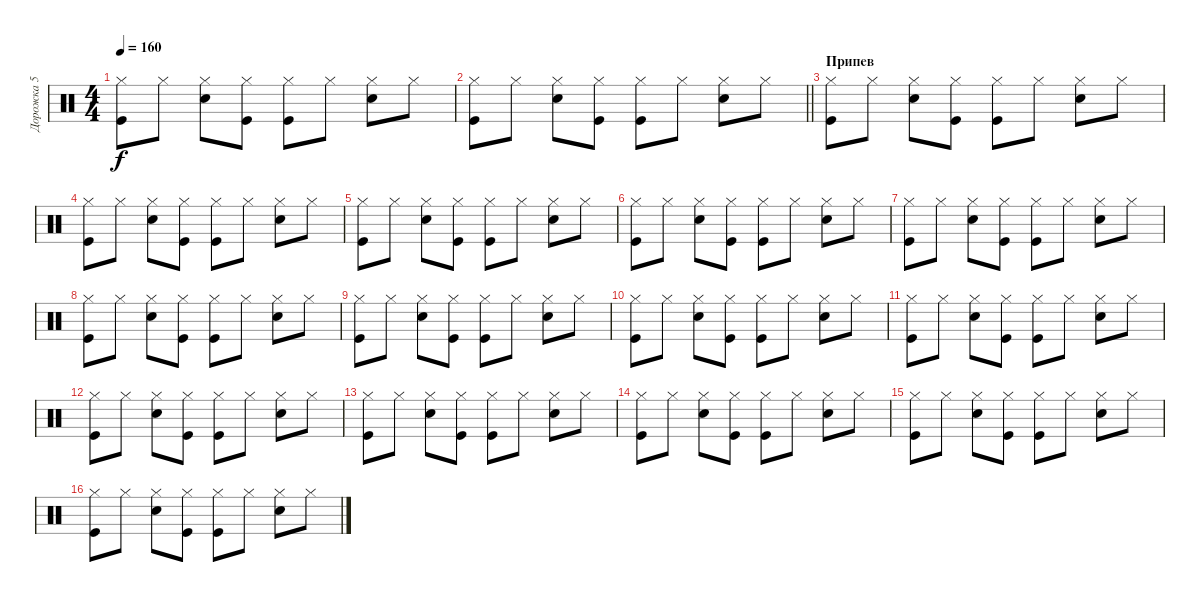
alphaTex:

\track ("Дорожка 5" "Дорожка 5") {solo instrument percussion}
\staff {score}
\articulation defaults
\ts (4 4)
\tempo 160
\clef neutral
\ks c
("Kick (hit)" "Hi-Hat (closed)").8{dy f} "Hi-Hat (closed)".8 ("Hi-Hat (closed)" "Snare (hit) 2").8 ("Kick (hit)" "Hi-Hat (closed)").8 ("Kick (hit)" "Hi-Hat (closed)").8 "Hi-Hat (closed)".8 ("Hi-Hat (closed)" "Snare (hit) 2").8 "Hi-Hat (closed)".8 |
\barLineRight lightlight
("Kick (hit)" "Hi-Hat (closed)").8 "Hi-Hat (closed)".8 ("Hi-Hat (closed)" "Snare (hit) 2").8 ("Kick (hit)" "Hi-Hat (closed)").8 ("Kick (hit)" "Hi-Hat (closed)").8 "Hi-Hat (closed)".8 ("Hi-Hat (closed)" "Snare (hit) 2").8 "Hi-Hat (closed)".8 |
\section ("" "Припев")
("Kick (hit)" "Hi-Hat (closed)").8 "Hi-Hat (closed)".8 ("Hi-Hat (closed)" "Snare (hit) 2").8 ("Kick (hit)" "Hi-Hat (closed)").8 ("Kick (hit)" "Hi-Hat (closed)").8 "Hi-Hat (closed)".8 ("Hi-Hat (closed)" "Snare (hit) 2").8 "Hi-Hat (closed)".8 |
("Kick (hit)" "Hi-Hat (closed)").8 "Hi-Hat (closed)".8 ("Hi-Hat (closed)" "Snare (hit) 2").8 ("Kick (hit)" "Hi-Hat (closed)").8 ("Kick (hit)" "Hi-Hat (closed)").8 "Hi-Hat (closed)".8 ("Hi-Hat (closed)" "Snare (hit) 2").8 "Hi-Hat (closed)".8 |
("Kick (hit)" "Hi-Hat (closed)").8 "Hi-Hat (closed)".8 ("Hi-Hat (closed)" "Snare (hit) 2").8 ("Kick (hit)" "Hi-Hat (closed)").8 ("Kick (hit)" "Hi-Hat (closed)").8 "Hi-Hat (closed)".8 ("Hi-Hat (closed)" "Snare (hit) 2").8 "Hi-Hat (closed)".8 |
("Kick (hit)" "Hi-Hat (closed)").8 "Hi-Hat (closed)".8 ("Hi-Hat (closed)" "Snare (hit) 2").8 ("Kick (hit)" "Hi-Hat (closed)").8 ("Kick (hit)" "Hi-Hat (closed)").8 "Hi-Hat (closed)".8 ("Hi-Hat (closed)" "Snare (hit) 2").8 "Hi-Hat (closed)".8 |
("Kick (hit)" "Hi-Hat (closed)").8 "Hi-Hat (closed)".8 ("Hi-Hat (closed)" "Snare (hit) 2").8 ("Kick (hit)" "Hi-Hat (closed)").8 ("Kick (hit)" "Hi-Hat (closed)").8 "Hi-Hat (closed)".8 ("Hi-Hat (closed)" "Snare (hit) 2").8 "Hi-Hat (closed)".8 |
("Kick (hit)" "Hi-Hat (closed)").8 "Hi-Hat (closed)".8 ("Hi-Hat (closed)" "Snare (hit) 2").8 ("Kick (hit)" "Hi-Hat (closed)").8 ("Kick (hit)" "Hi-Hat (closed)").8 "Hi-Hat (closed)".8 ("Hi-Hat (closed)" "Snare (hit) 2").8 "Hi-Hat (closed)".8 |
("Kick (hit)" "Hi-Hat (closed)").8 "Hi-Hat (closed)".8 ("Hi-Hat (closed)" "Snare (hit) 2").8 ("Kick (hit)" "Hi-Hat (closed)").8 ("Kick (hit)" "Hi-Hat (closed)").8 "Hi-Hat (closed)".8 ("Hi-Hat (closed)" "Snare (hit) 2").8 "Hi-Hat (closed)".8 |
("Kick (hit)" "Hi-Hat (closed)").8 "Hi-Hat (closed)".8 ("Hi-Hat (closed)" "Snare (hit) 2").8 ("Kick (hit)" "Hi-Hat (closed)").8 ("Kick (hit)" "Hi-Hat (closed)").8 "Hi-Hat (closed)".8 ("Hi-Hat (closed)" "Snare (hit) 2").8 "Hi-Hat (closed)".8 |
("Kick (hit)" "Hi-Hat (closed)").8 "Hi-Hat (closed)".8 ("Hi-Hat (closed)" "Snare (hit) 2").8 ("Kick (hit)" "Hi-Hat (closed)").8 ("Kick (hit)" "Hi-Hat (closed)").8 "Hi-Hat (closed)".8 ("Hi-Hat (closed)" "Snare (hit) 2").8 "Hi-Hat (closed)".8 |
("Kick (hit)" "Hi-Hat (closed)").8 "Hi-Hat (closed)".8 ("Hi-Hat (closed)" "Snare (hit) 2").8 ("Kick (hit)" "Hi-Hat (closed)").8 ("Kick (hit)" "Hi-Hat (closed)").8 "Hi-Hat (closed)".8 ("Hi-Hat (closed)" "Snare (hit) 2").8 "Hi-Hat (closed)".8 |
("Kick (hit)" "Hi-Hat (closed)").8 "Hi-Hat (closed)".8 ("Hi-Hat (closed)" "Snare (hit) 2").8 ("Kick (hit)" "Hi-Hat (closed)").8 ("Kick (hit)" "Hi-Hat (closed)").8 "Hi-Hat (closed)".8 ("Hi-Hat (closed)" "Snare (hit) 2").8 "Hi-Hat (closed)".8 |
("Kick (hit)" "Hi-Hat (closed)").8 "Hi-Hat (closed)".8 ("Hi-Hat (closed)" "Snare (hit) 2").8 ("Kick (hit)" "Hi-Hat (closed)").8 ("Kick (hit)" "Hi-Hat (closed)").8 "Hi-Hat (closed)".8 ("Hi-Hat (closed)" "Snare (hit) 2").8 "Hi-Hat (closed)".8 |
("Kick (hit)" "Hi-Hat (closed)").8 "Hi-Hat (closed)".8 ("Hi-Hat (closed)" "Snare (hit) 2").8 ("Kick (hit)" "Hi-Hat (closed)").8 ("Kick (hit)" "Hi-Hat (closed)").8 "Hi-Hat (closed)".8 ("Hi-Hat (closed)" "Snare (hit) 2").8 "Hi-Hat (closed)".8 |
("Kick (hit)" "Hi-Hat (closed)").8 "Hi-Hat (closed)".8 ("Hi-Hat (closed)" "Snare (hit) 2").8 ("Kick (hit)" "Hi-Hat (closed)").8 ("Kick (hit)" "Hi-Hat (closed)").8 "Hi-Hat (closed)".8 ("Hi-Hat (closed)" "Snare (hit) 2").8 "Hi-Hat (closed)".8
